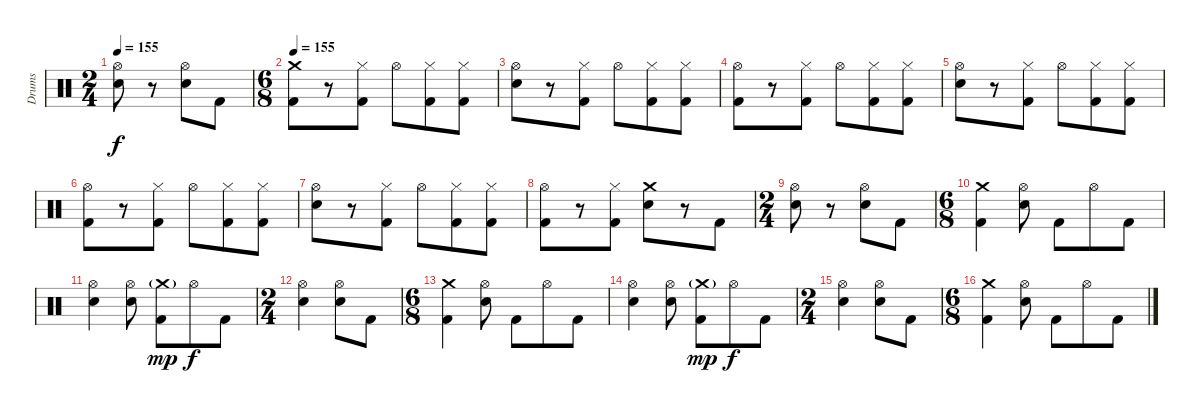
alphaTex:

\track ("Drums" "Drums") {instrument percussion}
\staff {score}
\articulation defaults
\ts (2 4)
\tempo 155
\clef neutral
\ks c
("Hi-Hat (open)" "Electric Snare (hit)").8{dy f} r.8 ("Hi-Hat (open)" "Electric Snare (hit)").8 "Kick (hit) 2".8 |
\ts (6 8)
\tempo 155
("Crash medium (hit)" "Kick (hit) 2").8 r.8 ("Hi-Hat (closed)" "Kick (hit) 2").8 "Hi-Hat (open)".8 ("Hi-Hat (closed)" "Kick (hit) 2").8 ("Hi-Hat (closed)" "Kick (hit) 2").8 |
("Hi-Hat (open)" "Electric Snare (hit)").8 r.8 ("Hi-Hat (closed)" "Kick (hit) 2").8 "Hi-Hat (open)".8 ("Hi-Hat (closed)" "Kick (hit) 2").8 ("Hi-Hat (closed)" "Kick (hit) 2").8 |
("Hi-Hat (open)" "Kick (hit) 2").8 r.8 ("Hi-Hat (closed)" "Kick (hit) 2").8 "Hi-Hat (open)".8 ("Hi-Hat (closed)" "Kick (hit) 2").8 ("Hi-Hat (closed)" "Kick (hit) 2").8 |
("Hi-Hat (open)" "Electric Snare (hit)").8 r.8 ("Hi-Hat (closed)" "Kick (hit) 2").8 "Hi-Hat (open)".8 ("Hi-Hat (closed)" "Kick (hit) 2").8 ("Hi-Hat (closed)" "Kick (hit) 2").8 |
("Hi-Hat (open)" "Kick (hit) 2").8 r.8 ("Hi-Hat (closed)" "Kick (hit) 2").8 "Hi-Hat (open)".8 ("Hi-Hat (closed)" "Kick (hit) 2").8 ("Hi-Hat (closed)" "Kick (hit) 2").8 |
("Hi-Hat (open)" "Electric Snare (hit)").8 r.8 ("Hi-Hat (closed)" "Kick (hit) 2").8 "Hi-Hat (open)".8 ("Hi-Hat (closed)" "Kick (hit) 2").8 ("Hi-Hat (closed)" "Kick (hit) 2").8 |
("Hi-Hat (open)" "Kick (hit) 2").8 r.8 ("Hi-Hat (closed)" "Kick (hit) 2").8 ("Crash medium (hit)" "Electric Snare (hit)").8 r.8 "Kick (hit) 2".8 |
\ts (2 4)
("Hi-Hat (open)" "Electric Snare (hit)").8 r.8 ("Hi-Hat (open)" "Electric Snare (hit)").8 "Kick (hit) 2".8 |
\ts (6 8)
("Crash medium (hit)" "Kick (hit) 2").4 ("Hi-Hat (open)" "Electric Snare (hit)").8 "Kick (hit) 2".8 "Hi-Hat (open)".8 "Kick (hit) 2".8 |
("Hi-Hat (open)" "Electric Snare (hit)").4 ("Hi-Hat (open)" "Electric Snare (hit)").8 ("Crash medium (hit)"{g} "Kick (hit) 2").8{dy mp} "Hi-Hat (open)".8{dy f} "Kick (hit) 2".8 |
\ts (2 4)
("Hi-Hat (open)" "Electric Snare (hit)").4 ("Hi-Hat (open)" "Electric Snare (hit)").8 "Kick (hit) 2".8 |
\ts (6 8)
("Crash medium (hit)" "Kick (hit) 2").4 ("Hi-Hat (open)" "Electric Snare (hit)").8 "Kick (hit) 2".8 "Hi-Hat (open)".8 "Kick (hit) 2".8 |
("Hi-Hat (open)" "Electric Snare (hit)").4 ("Hi-Hat (open)" "Electric Snare (hit)").8 ("Crash medium (hit)"{g} "Kick (hit) 2").8{dy mp} "Hi-Hat (open)".8{dy f} "Kick (hit) 2".8 |
\ts (2 4)
("Hi-Hat (open)" "Electric Snare (hit)").4 ("Hi-Hat (open)" "Electric Snare (hit)").8 "Kick (hit) 2".8 |
\ts (6 8)
("Crash medium (hit)" "Kick (hit) 2").4 ("Hi-Hat (open)" "Electric Snare (hit)").8 "Kick (hit) 2".8 "Hi-Hat (open)".8 "Kick (hit) 2".8
